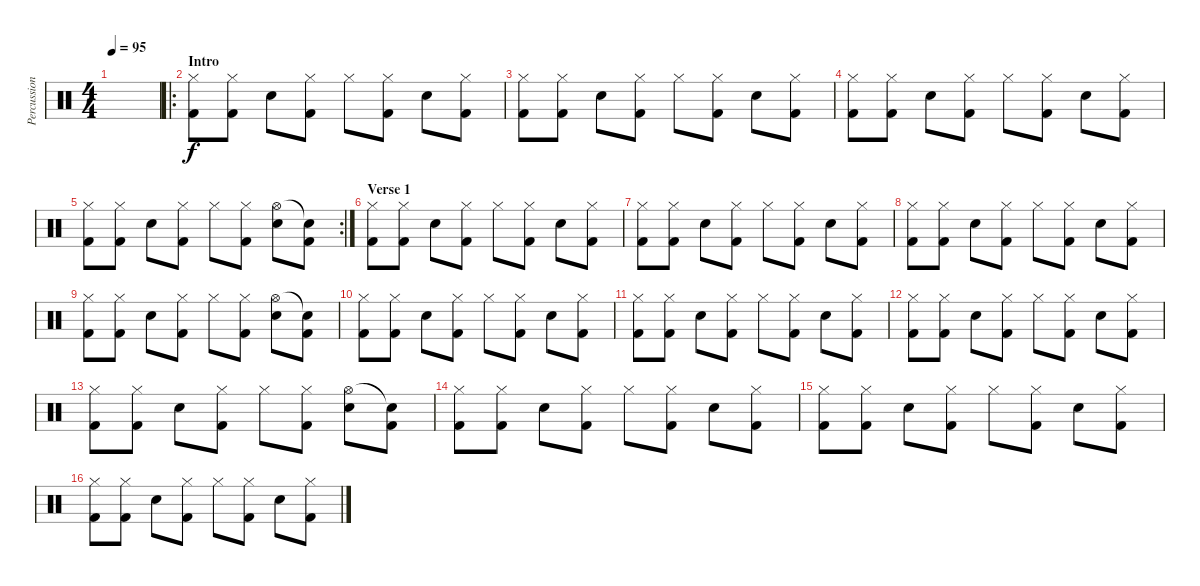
\track ("Percussion" "Percussion") {instrument percussion}
\staff {score}
\articulation defaults
\ts (4 4)
\tempo 95
\clef neutral
\ks c
|
\ro
\section ("" "Intro")
("Hi-Hat (closed)" "Kick (hit) 2").8 ("Hi-Hat (closed)" "Kick (hit) 2").8 "Snare (hit) 2".8 ("Hi-Hat (closed)" "Kick (hit) 2").8 "Hi-Hat (closed)".8 ("Hi-Hat (closed)" "Kick (hit) 2").8 "Snare (hit) 2".8 ("Hi-Hat (closed)" "Kick (hit) 2").8 |
("Hi-Hat (closed)" "Kick (hit) 2").8 ("Hi-Hat (closed)" "Kick (hit) 2").8 "Snare (hit) 2".8 ("Hi-Hat (closed)" "Kick (hit) 2").8 "Hi-Hat (closed)".8 ("Hi-Hat (closed)" "Kick (hit) 2").8 "Snare (hit) 2".8 ("Hi-Hat (closed)" "Kick (hit) 2").8 |
("Hi-Hat (closed)" "Kick (hit) 2").8 ("Hi-Hat (closed)" "Kick (hit) 2").8 "Snare (hit) 2".8 ("Hi-Hat (closed)" "Kick (hit) 2").8 "Hi-Hat (closed)".8 ("Hi-Hat (closed)" "Kick (hit) 2").8 "Snare (hit) 2".8 ("Hi-Hat (closed)" "Kick (hit) 2").8 |
\rc 2
("Hi-Hat (closed)" "Kick (hit) 2").8 ("Hi-Hat (closed)" "Kick (hit) 2").8 "Snare (hit) 2".8 ("Hi-Hat (closed)" "Kick (hit) 2").8 "Hi-Hat (closed)".8 ("Hi-Hat (closed)" "Kick (hit) 2").8 ("Hi-Hat (open)" "Snare (hit) 2").8 ("Snare (hit)"{t} "Kick (hit) 2").8 |
\section ("" "Verse 1")
("Hi-Hat (closed)" "Kick (hit) 2").8 ("Hi-Hat (closed)" "Kick (hit) 2").8 "Snare (hit) 2".8 ("Hi-Hat (closed)" "Kick (hit) 2").8 "Hi-Hat (closed)".8 ("Hi-Hat (closed)" "Kick (hit) 2").8 "Snare (hit) 2".8 ("Hi-Hat (closed)" "Kick (hit) 2").8 |
("Hi-Hat (closed)" "Kick (hit) 2").8 ("Hi-Hat (closed)" "Kick (hit) 2").8 "Snare (hit) 2".8 ("Hi-Hat (closed)" "Kick (hit) 2").8 "Hi-Hat (closed)".8 ("Hi-Hat (closed)" "Kick (hit) 2").8 "Snare (hit) 2".8 ("Hi-Hat (closed)" "Kick (hit) 2").8 |
("Hi-Hat (closed)" "Kick (hit) 2").8 ("Hi-Hat (closed)" "Kick (hit) 2").8 "Snare (hit) 2".8 ("Hi-Hat (closed)" "Kick (hit) 2").8 "Hi-Hat (closed)".8 ("Hi-Hat (closed)" "Kick (hit) 2").8 "Snare (hit) 2".8 ("Hi-Hat (closed)" "Kick (hit) 2").8 |
("Hi-Hat (closed)" "Kick (hit) 2").8 ("Hi-Hat (closed)" "Kick (hit) 2").8 "Snare (hit) 2".8 ("Hi-Hat (closed)" "Kick (hit) 2").8 "Hi-Hat (closed)".8 ("Hi-Hat (closed)" "Kick (hit) 2").8 ("Hi-Hat (open)" "Snare (hit) 2").8 ("Snare (hit)"{t} "Kick (hit) 2").8 |
("Hi-Hat (closed)" "Kick (hit) 2").8 ("Hi-Hat (closed)" "Kick (hit) 2").8 "Snare (hit) 2".8 ("Hi-Hat (closed)" "Kick (hit) 2").8 "Hi-Hat (closed)".8 ("Hi-Hat (closed)" "Kick (hit) 2").8 "Snare (hit) 2".8 ("Hi-Hat (closed)" "Kick (hit) 2").8 |
("Hi-Hat (closed)" "Kick (hit) 2").8 ("Hi-Hat (closed)" "Kick (hit) 2").8 "Snare (hit) 2".8 ("Hi-Hat (closed)" "Kick (hit) 2").8 "Hi-Hat (closed)".8 ("Hi-Hat (closed)" "Kick (hit) 2").8 "Snare (hit) 2".8 ("Hi-Hat (closed)" "Kick (hit) 2").8 |
("Hi-Hat (closed)" "Kick (hit) 2").8 ("Hi-Hat (closed)" "Kick (hit) 2").8 "Snare (hit) 2".8 ("Hi-Hat (closed)" "Kick (hit) 2").8 "Hi-Hat (closed)".8 ("Hi-Hat (closed)" "Kick (hit) 2").8 "Snare (hit) 2".8 ("Hi-Hat (closed)" "Kick (hit) 2").8 |
("Hi-Hat (closed)" "Kick (hit) 2").8 ("Hi-Hat (closed)" "Kick (hit) 2").8 "Snare (hit) 2".8 ("Hi-Hat (closed)" "Kick (hit) 2").8 "Hi-Hat (closed)".8 ("Hi-Hat (closed)" "Kick (hit) 2").8 ("Hi-Hat (open)" "Snare (hit) 2").8 ("Snare (hit)"{t} "Kick (hit) 2").8 |
("Hi-Hat (closed)" "Kick (hit) 2").8 ("Hi-Hat (closed)" "Kick (hit) 2").8 "Snare (hit) 2".8 ("Hi-Hat (closed)" "Kick (hit) 2").8 "Hi-Hat (closed)".8 ("Hi-Hat (closed)" "Kick (hit) 2").8 "Snare (hit) 2".8 ("Hi-Hat (closed)" "Kick (hit) 2").8 |
("Hi-Hat (closed)" "Kick (hit) 2").8 ("Hi-Hat (closed)" "Kick (hit) 2").8 "Snare (hit) 2".8 ("Hi-Hat (closed)" "Kick (hit) 2").8 "Hi-Hat (closed)".8 ("Hi-Hat (closed)" "Kick (hit) 2").8 "Snare (hit) 2".8 ("Hi-Hat (closed)" "Kick (hit) 2").8 |
("Hi-Hat (closed)" "Kick (hit) 2").8 ("Hi-Hat (closed)" "Kick (hit) 2").8 "Snare (hit) 2".8 ("Hi-Hat (closed)" "Kick (hit) 2").8 "Hi-Hat (closed)".8 ("Hi-Hat (closed)" "Kick (hit) 2").8 "Snare (hit) 2".8 ("Hi-Hat (closed)" "Kick (hit) 2").8
